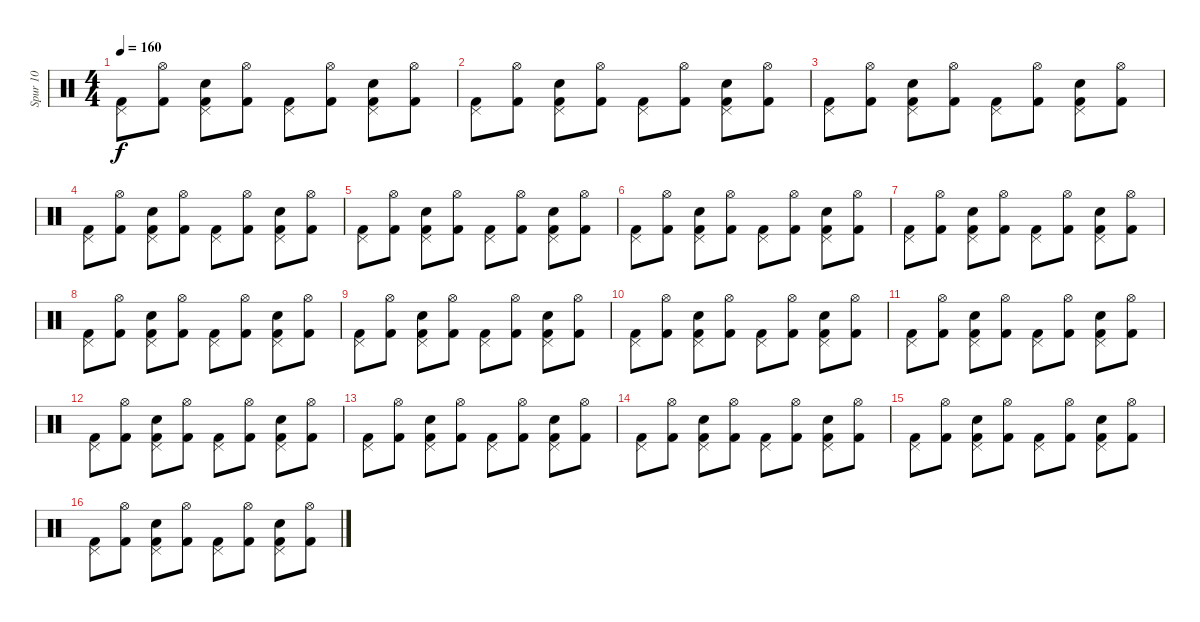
\track ("Spur 10" "Spur 10") {instrument percussion}
\staff {score}
\articulation defaults
\ts (4 4)
\tempo 160
\clef neutral
\ks c
("Kick (hit) 2" "Pedal Hi-Hat (hit)").8{dy f} ("Hi-Hat (open)" "Kick (hit) 2").8 ("Pedal Hi-Hat (hit)" "Snare (hit) 2" "Kick (hit) 2").8 ("Hi-Hat (open)" "Kick (hit) 2").8 ("Pedal Hi-Hat (hit)" "Kick (hit) 2").8 ("Hi-Hat (open)" "Kick (hit) 2").8 ("Snare (hit) 2" "Kick (hit) 2" "Pedal Hi-Hat (hit)").8 ("Kick (hit) 2" "Hi-Hat (open)").8 |
("Pedal Hi-Hat (hit)" "Kick (hit) 2").8 ("Kick (hit) 2" "Hi-Hat (open)").8 ("Pedal Hi-Hat (hit)" "Snare (hit) 2" "Kick (hit) 2").8 ("Hi-Hat (open)" "Kick (hit) 2").8 ("Pedal Hi-Hat (hit)" "Kick (hit) 2").8 ("Kick (hit) 2" "Hi-Hat (open)").8 ("Snare (hit) 2" "Pedal Hi-Hat (hit)" "Kick (hit) 2").8 ("Hi-Hat (open)" "Kick (hit) 2").8 |
("Pedal Hi-Hat (hit)" "Kick (hit) 2").8 ("Hi-Hat (open)" "Kick (hit) 2").8 ("Kick (hit) 2" "Snare (hit) 2" "Pedal Hi-Hat (hit)").8 ("Kick (hit) 2" "Hi-Hat (open)").8 ("Kick (hit) 2" "Pedal Hi-Hat (hit)").8 ("Kick (hit) 2" "Hi-Hat (open)").8 ("Kick (hit) 2" "Pedal Hi-Hat (hit)" "Snare (hit) 2").8 ("Kick (hit) 2" "Hi-Hat (open)").8 |
("Kick (hit) 2" "Pedal Hi-Hat (hit)").8 ("Hi-Hat (open)" "Kick (hit) 2").8 ("Kick (hit) 2" "Pedal Hi-Hat (hit)" "Snare (hit) 2").8 ("Kick (hit) 2" "Hi-Hat (open)").8 ("Kick (hit) 2" "Pedal Hi-Hat (hit)").8 ("Hi-Hat (open)" "Kick (hit) 2").8 ("Pedal Hi-Hat (hit)" "Kick (hit) 2" "Snare (hit) 2").8 ("Hi-Hat (open)" "Kick (hit) 2").8 |
("Pedal Hi-Hat (hit)" "Kick (hit) 2").8 ("Kick (hit) 2" "Hi-Hat (open)").8 ("Kick (hit) 2" "Pedal Hi-Hat (hit)" "Snare (hit) 2").8 ("Hi-Hat (open)" "Kick (hit) 2").8 ("Pedal Hi-Hat (hit)" "Kick (hit) 2").8 ("Hi-Hat (open)" "Kick (hit) 2").8 ("Kick (hit) 2" "Snare (hit) 2" "Pedal Hi-Hat (hit)").8 ("Kick (hit) 2" "Hi-Hat (open)").8 |
("Kick (hit) 2" "Pedal Hi-Hat (hit)").8 ("Kick (hit) 2" "Hi-Hat (open)").8 ("Kick (hit) 2" "Pedal Hi-Hat (hit)" "Snare (hit) 2").8 ("Kick (hit) 2" "Hi-Hat (open)").8 ("Kick (hit) 2" "Pedal Hi-Hat (hit)").8 ("Hi-Hat (open)" "Kick (hit) 2").8 ("Kick (hit) 2" "Pedal Hi-Hat (hit)" "Snare (hit) 2").8 ("Kick (hit) 2" "Hi-Hat (open)").8 |
("Pedal Hi-Hat (hit)" "Kick (hit) 2").8 ("Kick (hit) 2" "Hi-Hat (open)").8 ("Kick (hit) 2" "Snare (hit) 2" "Pedal Hi-Hat (hit)").8 ("Kick (hit) 2" "Hi-Hat (open)").8 ("Pedal Hi-Hat (hit)" "Kick (hit) 2").8 ("Hi-Hat (open)" "Kick (hit) 2").8 ("Pedal Hi-Hat (hit)" "Kick (hit) 2" "Snare (hit) 2").8 ("Kick (hit) 2" "Hi-Hat (open)").8 |
("Kick (hit) 2" "Pedal Hi-Hat (hit)").8 ("Kick (hit) 2" "Hi-Hat (open)").8 ("Kick (hit) 2" "Snare (hit) 2" "Pedal Hi-Hat (hit)").8 ("Kick (hit) 2" "Hi-Hat (open)").8 ("Pedal Hi-Hat (hit)" "Kick (hit) 2").8 ("Hi-Hat (open)" "Kick (hit) 2").8 ("Pedal Hi-Hat (hit)" "Kick (hit) 2" "Snare (hit) 2").8 ("Kick (hit) 2" "Hi-Hat (open)").8 |
("Kick (hit) 2" "Pedal Hi-Hat (hit)").8 ("Hi-Hat (open)" "Kick (hit) 2").8 ("Snare (hit) 2" "Kick (hit) 2" "Pedal Hi-Hat (hit)").8 ("Hi-Hat (open)" "Kick (hit) 2").8 ("Pedal Hi-Hat (hit)" "Kick (hit) 2").8 ("Kick (hit) 2" "Hi-Hat (open)").8 ("Snare (hit) 2" "Pedal Hi-Hat (hit)" "Kick (hit) 2").8 ("Kick (hit) 2" "Hi-Hat (open)").8 |
("Pedal Hi-Hat (hit)" "Kick (hit) 2").8 ("Hi-Hat (open)" "Kick (hit) 2").8 ("Snare (hit) 2" "Kick (hit) 2" "Pedal Hi-Hat (hit)").8 ("Kick (hit) 2" "Hi-Hat (open)").8 ("Pedal Hi-Hat (hit)" "Kick (hit) 2").8 ("Hi-Hat (open)" "Kick (hit) 2").8 ("Kick (hit) 2" "Snare (hit) 2" "Pedal Hi-Hat (hit)").8 ("Hi-Hat (open)" "Kick (hit) 2").8 |
("Pedal Hi-Hat (hit)" "Kick (hit) 2").8 ("Kick (hit) 2" "Hi-Hat (open)").8 ("Snare (hit) 2" "Kick (hit) 2" "Pedal Hi-Hat (hit)").8 ("Hi-Hat (open)" "Kick (hit) 2").8 ("Kick (hit) 2" "Pedal Hi-Hat (hit)").8 ("Kick (hit) 2" "Hi-Hat (open)").8 ("Snare (hit) 2" "Kick (hit) 2" "Pedal Hi-Hat (hit)").8 ("Hi-Hat (open)" "Kick (hit) 2").8 |
("Kick (hit) 2" "Pedal Hi-Hat (hit)").8 ("Kick (hit) 2" "Hi-Hat (open)").8 ("Kick (hit) 2" "Snare (hit) 2" "Pedal Hi-Hat (hit)").8 ("Hi-Hat (open)" "Kick (hit) 2").8 ("Pedal Hi-Hat (hit)" "Kick (hit) 2").8 ("Hi-Hat (open)" "Kick (hit) 2").8 ("Kick (hit) 2" "Snare (hit) 2" "Pedal Hi-Hat (hit)").8 ("Hi-Hat (open)" "Kick (hit) 2").8 |
("Kick (hit) 2" "Pedal Hi-Hat (hit)").8 ("Kick (hit) 2" "Hi-Hat (open)").8 ("Snare (hit) 2" "Pedal Hi-Hat (hit)" "Kick (hit) 2").8 ("Hi-Hat (open)" "Kick (hit) 2").8 ("Pedal Hi-Hat (hit)" "Kick (hit) 2").8 ("Kick (hit) 2" "Hi-Hat (open)").8 ("Snare (hit) 2" "Kick (hit) 2" "Pedal Hi-Hat (hit)").8 ("Kick (hit) 2" "Hi-Hat (open)").8 |
("Pedal Hi-Hat (hit)" "Kick (hit) 2").8 ("Kick (hit) 2" "Hi-Hat (open)").8 ("Pedal Hi-Hat (hit)" "Kick (hit) 2" "Snare (hit) 2").8 ("Hi-Hat (open)" "Kick (hit) 2").8 ("Kick (hit) 2" "Pedal Hi-Hat (hit)").8 ("Kick (hit) 2" "Hi-Hat (open)").8 ("Pedal Hi-Hat (hit)" "Snare (hit) 2" "Kick (hit) 2").8 ("Hi-Hat (open)" "Kick (hit) 2").8 |
("Kick (hit) 2" "Pedal Hi-Hat (hit)").8 ("Hi-Hat (open)" "Kick (hit) 2").8 ("Kick (hit) 2" "Snare (hit) 2" "Pedal Hi-Hat (hit)").8 ("Hi-Hat (open)" "Kick (hit) 2").8 ("Pedal Hi-Hat (hit)" "Kick (hit) 2").8 ("Hi-Hat (open)" "Kick (hit) 2").8 ("Snare (hit) 2" "Kick (hit) 2" "Pedal Hi-Hat (hit)").8 ("Kick (hit) 2" "Hi-Hat (open)").8 |
("Kick (hit) 2" "Pedal Hi-Hat (hit)").8 ("Hi-Hat (open)" "Kick (hit) 2").8 ("Snare (hit) 2" "Pedal Hi-Hat (hit)" "Kick (hit) 2").8 ("Kick (hit) 2" "Hi-Hat (open)").8 ("Pedal Hi-Hat (hit)" "Kick (hit) 2").8 ("Hi-Hat (open)" "Kick (hit) 2").8 ("Snare (hit) 2" "Pedal Hi-Hat (hit)" "Kick (hit) 2").8 ("Hi-Hat (open)" "Kick (hit) 2").8
